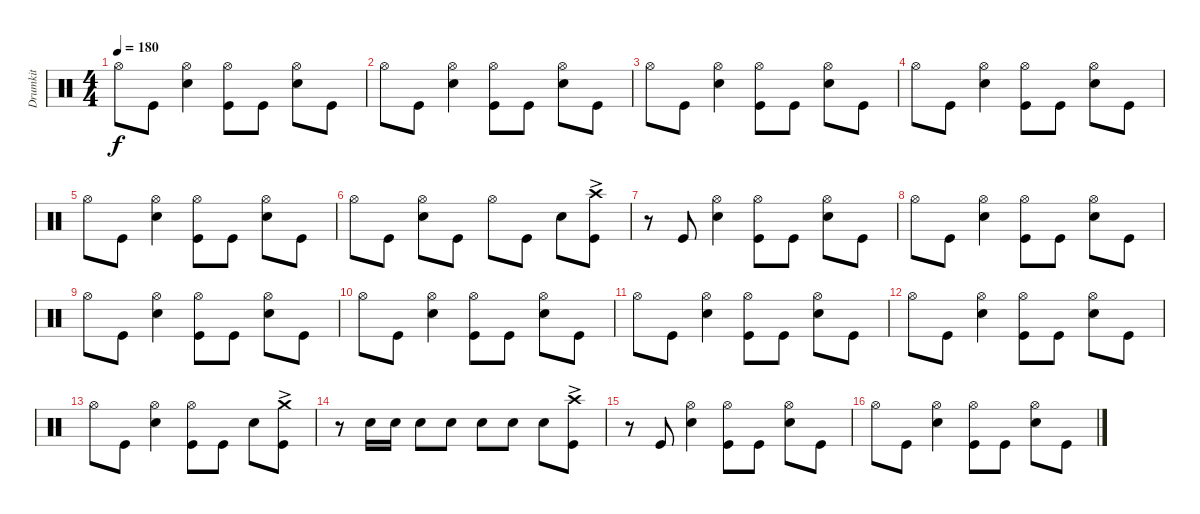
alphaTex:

\track ("Drumkit" "Drumkit") {instrument percussion}
\staff {score}
\articulation defaults
\ts (4 4)
\tempo 180
\clef neutral
\ks c "Hi-Hat (open)".8{dy f} "Kick (hit)".8
("Hi-Hat (open)" "Snare (hit) 2").4 ("Hi-Hat (open)" "Kick (hit)").8 "Kick (hit)".8 ("Hi-Hat (open)" "Snare (hit) 2").8 "Kick (hit)".8 |
"Hi-Hat (open)".8 "Kick (hit)".8 ("Hi-Hat (open)" "Snare (hit) 2").4 ("Hi-Hat (open)" "Kick (hit)").8 "Kick (hit)".8 ("Hi-Hat (open)" "Snare (hit) 2").8 "Kick (hit)".8 |
"Hi-Hat (open)".8 "Kick (hit)".8 ("Hi-Hat (open)" "Snare (hit) 2").4 ("Hi-Hat (open)" "Kick (hit)").8 "Kick (hit)".8 ("Hi-Hat (open)" "Snare (hit) 2").8 "Kick (hit)".8 |
"Hi-Hat (open)".8 "Kick (hit)".8 ("Hi-Hat (open)" "Snare (hit) 2").4 ("Hi-Hat (open)" "Kick (hit)").8 "Kick (hit)".8 ("Hi-Hat (open)" "Snare (hit) 2").8 "Kick (hit)".8 |
"Hi-Hat (open)".8 "Kick (hit)".8 ("Hi-Hat (open)" "Snare (hit) 2").4 ("Hi-Hat (open)" "Kick (hit)").8 "Kick (hit)".8 ("Hi-Hat (open)" "Snare (hit) 2").8 "Kick (hit)".8 |
"Hi-Hat (open)".8 "Kick (hit)".8 ("Hi-Hat (open)" "Snare (hit) 2").8 "Kick (hit)".8 "Hi-Hat (open)".8 "Kick (hit)".8 "Snare (hit) 2".8 ("Crash high (hit)"{ac} "Kick (hit)").8 |
r.8 "Kick (hit)".8 ("Hi-Hat (open)" "Snare (hit) 2").4 ("Hi-Hat (open)" "Kick (hit)").8 "Kick (hit)".8 ("Hi-Hat (open)" "Snare (hit) 2").8 "Kick (hit)".8 |
"Hi-Hat (open)".8 "Kick (hit)".8 ("Hi-Hat (open)" "Snare (hit) 2").4 ("Hi-Hat (open)" "Kick (hit)").8 "Kick (hit)".8 ("Hi-Hat (open)" "Snare (hit) 2").8 "Kick (hit)".8 |
"Hi-Hat (open)".8 "Kick (hit)".8 ("Hi-Hat (open)" "Snare (hit) 2").4 ("Hi-Hat (open)" "Kick (hit)").8 "Kick (hit)".8 ("Hi-Hat (open)" "Snare (hit) 2").8 "Kick (hit)".8 |
"Hi-Hat (open)".8 "Kick (hit)".8 ("Hi-Hat (open)" "Snare (hit) 2").4 ("Hi-Hat (open)" "Kick (hit)").8 "Kick (hit)".8 ("Hi-Hat (open)" "Snare (hit) 2").8 "Kick (hit)".8 |
"Hi-Hat (open)".8 "Kick (hit)".8 ("Hi-Hat (open)" "Snare (hit) 2").4 ("Hi-Hat (open)" "Kick (hit)").8 "Kick (hit)".8 ("Hi-Hat (open)" "Snare (hit) 2").8 "Kick (hit)".8 |
"Hi-Hat (open)".8 "Kick (hit)".8 ("Hi-Hat (open)" "Snare (hit) 2").4 ("Hi-Hat (open)" "Kick (hit)").8 "Kick (hit)".8 ("Hi-Hat (open)" "Snare (hit) 2").8 "Kick (hit)".8 |
"Hi-Hat (open)".8 "Kick (hit)".8 ("Hi-Hat (open)" "Snare (hit) 2").4 ("Hi-Hat (open)" "Kick (hit)").8 "Kick (hit)".8 "Snare (hit) 2".8 ("Crash medium (hit)"{ac} "Kick (hit)").8 |
r.8 "Snare (hit) 2".16 "Snare (hit) 2".16 "Snare (hit) 2".8 "Snare (hit) 2".8 "Snare (hit) 2".8 "Snare (hit) 2".8 "Snare (hit) 2".8 ("Crash high (hit)"{ac} "Kick (hit)").8 |
r.8 "Kick (hit)".8 ("Hi-Hat (open)" "Snare (hit) 2").4 ("Hi-Hat (open)" "Kick (hit)").8 "Kick (hit)".8 ("Hi-Hat (open)" "Snare (hit) 2").8 "Kick (hit)".8 |
"Hi-Hat (open)".8 "Kick (hit)".8 ("Hi-Hat (open)" "Snare (hit) 2").4 ("Hi-Hat (open)" "Kick (hit)").8 "Kick (hit)".8 ("Hi-Hat (open)" "Snare (hit) 2").8 "Kick (hit)".8
